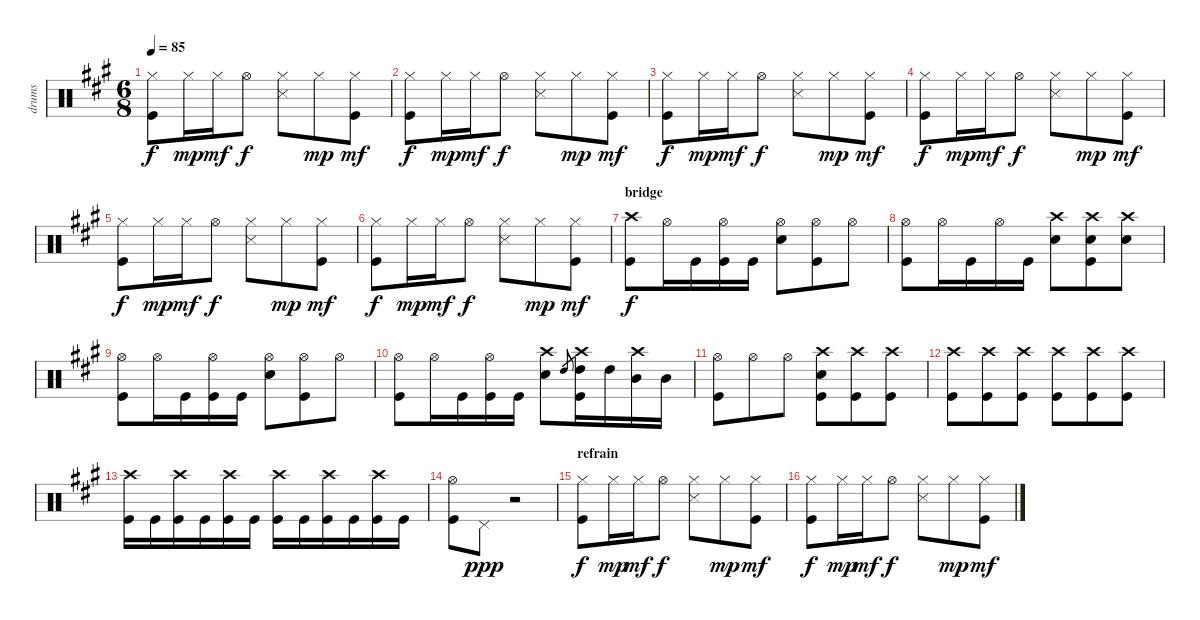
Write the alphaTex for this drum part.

\track ("drums" "drums") {instrument percussion}
\staff {score}
\articulation defaults
\ts (6 8)
\tempo 85
\clef neutral
\ks f#minor
("Hi-Hat (closed)" "Kick (hit)").8{dy f} "Hi-Hat (closed)".16{dy mp} "Hi-Hat (closed)".16{dy mf} "Hi-Hat (open)".8{dy f} ("Hi-Hat (closed)" "Snare (side stick) 3").8 "Hi-Hat (closed)".8{dy mp} ("Hi-Hat (closed)" "Kick (hit)").8{dy mf} |
("Hi-Hat (closed)" "Kick (hit)").8{dy f} "Hi-Hat (closed)".16{dy mp} "Hi-Hat (closed)".16{dy mf} "Hi-Hat (open)".8{dy f} ("Hi-Hat (closed)" "Snare (side stick) 3").8 "Hi-Hat (closed)".8{dy mp} ("Hi-Hat (closed)" "Kick (hit)").8{dy mf} |
("Hi-Hat (closed)" "Kick (hit)").8{dy f} "Hi-Hat (closed)".16{dy mp} "Hi-Hat (closed)".16{dy mf} "Hi-Hat (open)".8{dy f} ("Hi-Hat (closed)" "Snare (side stick) 3").8 "Hi-Hat (closed)".8{dy mp} ("Hi-Hat (closed)" "Kick (hit)").8{dy mf} |
("Hi-Hat (closed)" "Kick (hit)").8{dy f} "Hi-Hat (closed)".16{dy mp} "Hi-Hat (closed)".16{dy mf} "Hi-Hat (open)".8{dy f} ("Hi-Hat (closed)" "Snare (side stick) 3").8 "Hi-Hat (closed)".8{dy mp} ("Hi-Hat (closed)" "Kick (hit)").8{dy mf} |
("Hi-Hat (closed)" "Kick (hit)").8{dy f} "Hi-Hat (closed)".16{dy mp} "Hi-Hat (closed)".16{dy mf} "Hi-Hat (open)".8{dy f} ("Hi-Hat (closed)" "Snare (side stick) 3").8 "Hi-Hat (closed)".8{dy mp} ("Hi-Hat (closed)" "Kick (hit)").8{dy mf} |
("Hi-Hat (closed)" "Kick (hit)").8{dy f} "Hi-Hat (closed)".16{dy mp} "Hi-Hat (closed)".16{dy mf} "Hi-Hat (open)".8{dy f} ("Hi-Hat (closed)" "Snare (side stick) 3").8 "Hi-Hat (closed)".8{dy mp} ("Hi-Hat (closed)" "Kick (hit)").8{dy mf} |
\section ("" "bridge")
("Crash high (hit)" "Kick (hit)").8{dy f} "Hi-Hat (open)".16 "Kick (hit)".16 ("Hi-Hat (open)" "Kick (hit)").16 "Kick (hit)".16 ("Hi-Hat (open)" "Electric Snare (hit)").8 ("Hi-Hat (open)" "Kick (hit)").8 "Hi-Hat (open)".8 |
("Hi-Hat (open)" "Kick (hit)").8 "Hi-Hat (open)".16 "Kick (hit)".16 "Hi-Hat (open)".16 "Kick (hit)".16 ("Crash high (hit)" "Electric Snare (hit)").8 ("Crash high (hit)" "Electric Snare (hit)" "Kick (hit)").8 ("Crash high (hit)" "Electric Snare (hit)").8 |
("Hi-Hat (open)" "Kick (hit)").8 "Hi-Hat (open)".16 "Kick (hit)".16 ("Hi-Hat (open)" "Kick (hit)").16 "Kick (hit)".16 ("Hi-Hat (open)" "Electric Snare (hit)").8 ("Hi-Hat (open)" "Kick (hit)").8 "Hi-Hat (open)".8 |
("Hi-Hat (open)" "Kick (hit)").8 "Hi-Hat (open)".16 "Kick (hit)".16 ("Hi-Hat (open)" "Kick (hit)").16 "Kick (hit)".16 ("Crash high (hit)" "Electric Snare (hit)").8 "High Tom (hit)".8{gr} ("Crash high (hit)" "High Tom (hit)" "Kick (hit)").16 "High Tom (hit)".16 ("Crash high (hit)" "Mid Tom (hit)").16 "Mid Tom (hit)".16 |
("Hi-Hat (open)" "Kick (hit)").8 "Hi-Hat (open)".8 "Hi-Hat (open)".8 ("Crash high (hit)" "Electric Snare (hit)" "Kick (hit)").8 ("Crash high (hit)" "Kick (hit)").8 ("Crash high (hit)" "Kick (hit)").8 |
("Crash high (hit)" "Kick (hit)").8 ("Crash high (hit)" "Kick (hit)").8 ("Crash high (hit)" "Kick (hit)").8 ("Crash high (hit)" "Kick (hit)").8 ("Crash high (hit)" "Kick (hit)").8 ("Crash high (hit)" "Kick (hit)").8 |
("Crash high (hit)" "Kick (hit)").16 "Kick (hit)".16 ("Crash high (hit)" "Kick (hit)").16 "Kick (hit)".16 ("Crash high (hit)" "Kick (hit)").16 "Kick (hit)".16 ("Crash high (hit)" "Kick (hit)").16 "Kick (hit)".16 ("Crash high (hit)" "Kick (hit)").16 "Kick (hit)".16 ("Crash high (hit)" "Kick (hit)").16 "Kick (hit)".16 |
("Hi-Hat (open)" "Kick (hit)").8 "Pedal Hi-Hat (hit)".8{dy ppp} r.2 |
\section ("" "refrain")
("Hi-Hat (closed)" "Kick (hit)").8{dy f} "Hi-Hat (closed)".16{dy mp} "Hi-Hat (closed)".16{dy mf} "Hi-Hat (open)".8{dy f} ("Hi-Hat (closed)" "Snare (side stick) 3").8 "Hi-Hat (closed)".8{dy mp} ("Hi-Hat (closed)" "Kick (hit)").8{dy mf} |
("Hi-Hat (closed)" "Kick (hit)").8{dy f} "Hi-Hat (closed)".16{dy mp} "Hi-Hat (closed)".16{dy mf} "Hi-Hat (open)".8{dy f} ("Hi-Hat (closed)" "Snare (side stick) 3").8 "Hi-Hat (closed)".8{dy mp} ("Hi-Hat (closed)" "Kick (hit)").8{dy mf}
